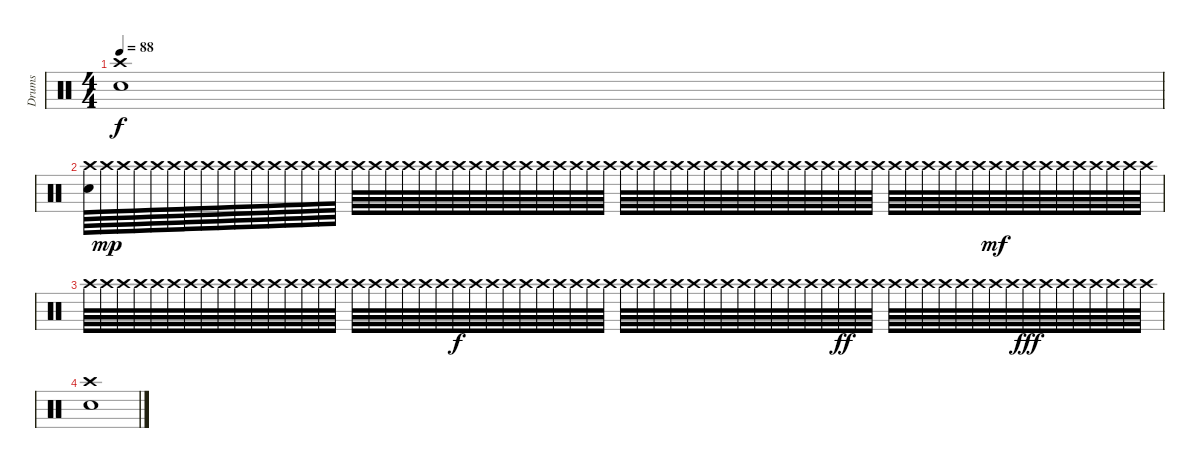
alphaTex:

\track ("Drums" "Drums") {instrument percussion}
\staff {score}
\articulation defaults
\ts (4 4)
\tempo 88
\clef neutral
\ks c
("Crash high (hit)" "Snare (hit) 2").1{dy f} |
("Crash high (hit)" "Snare (hit) 2").64 "Crash high (hit)".64{dy mp} "Crash high (hit)".64 "Crash high (hit)".64 "Crash high (hit)".64 "Crash high (hit)".64 "Crash high (hit)".64 "Crash high (hit)".64 "Crash high (hit)".64 "Crash high (hit)".64 "Crash high (hit)".64 "Crash high (hit)".64 "Crash high (hit)".64 "Crash high (hit)".64 "Crash high (hit)".64 "Crash high (hit)".64 "Crash high (hit)".64 "Crash high (hit)".64 "Crash high (hit)".64 "Crash high (hit)".64 "Crash high (hit)".64 "Crash high (hit)".64 "Crash high (hit)".64 "Crash high (hit)".64 "Crash high (hit)".64 "Crash high (hit)".64 "Crash high (hit)".64 "Crash high (hit)".64 "Crash high (hit)".64 "Crash high (hit)".64 "Crash high (hit)".64 "Crash high (hit)".64 "Crash high (hit)".64 "Crash high (hit)".64 "Crash high (hit)".64 "Crash high (hit)".64 "Crash high (hit)".64 "Crash high (hit)".64 "Crash high (hit)".64 "Crash high (hit)".64 "Crash high (hit)".64 "Crash high (hit)".64 "Crash high (hit)".64 "Crash high (hit)".64 "Crash high (hit)".64 "Crash high (hit)".64 "Crash high (hit)".64 "Crash high (hit)".64 "Crash high (hit)".64 "Crash high (hit)".64 "Crash high (hit)".64 "Crash high (hit)".64 "Crash high (hit)".64 "Crash high (hit)".64 "Crash high (hit)".64{dy mf} "Crash high (hit)".64 "Crash high (hit)".64 "Crash high (hit)".64 "Crash high (hit)".64 "Crash high (hit)".64 "Crash high (hit)".64 "Crash high (hit)".64 "Crash high (hit)".64 "Crash high (hit)".64 |
"Crash high (hit)".64 "Crash high (hit)".64 "Crash high (hit)".64 "Crash high (hit)".64 "Crash high (hit)".64 "Crash high (hit)".64 "Crash high (hit)".64 "Crash high (hit)".64 "Crash high (hit)".64 "Crash high (hit)".64 "Crash high (hit)".64 "Crash high (hit)".64 "Crash high (hit)".64 "Crash high (hit)".64 "Crash high (hit)".64 "Crash high (hit)".64 "Crash high (hit)".64 "Crash high (hit)".64 "Crash high (hit)".64 "Crash high (hit)".64 "Crash high (hit)".64 "Crash high (hit)".64 "Crash high (hit)".64{dy f} "Crash high (hit)".64 "Crash high (hit)".64 "Crash high (hit)".64 "Crash high (hit)".64 "Crash high (hit)".64 "Crash high (hit)".64 "Crash high (hit)".64 "Crash high (hit)".64 "Crash high (hit)".64 "Crash high (hit)".64 "Crash high (hit)".64 "Crash high (hit)".64 "Crash high (hit)".64 "Crash high (hit)".64 "Crash high (hit)".64 "Crash high (hit)".64 "Crash high (hit)".64 "Crash high (hit)".64 "Crash high (hit)".64 "Crash high (hit)".64 "Crash high (hit)".64 "Crash high (hit)".64 "Crash high (hit)".64{dy ff} "Crash high (hit)".64 "Crash high (hit)".64 "Crash high (hit)".64 "Crash high (hit)".64 "Crash high (hit)".64 "Crash high (hit)".64 "Crash high (hit)".64 "Crash high (hit)".64 "Crash high (hit)".64 "Crash high (hit)".64 "Crash high (hit)".64{dy fff} "Crash high (hit)".64 "Crash high (hit)".64 "Crash high (hit)".64 "Crash high (hit)".64 "Crash high (hit)".64 "Crash high (hit)".64 "Crash high (hit)".64 |
("Crash high (hit)" "Snare (hit) 2").1
